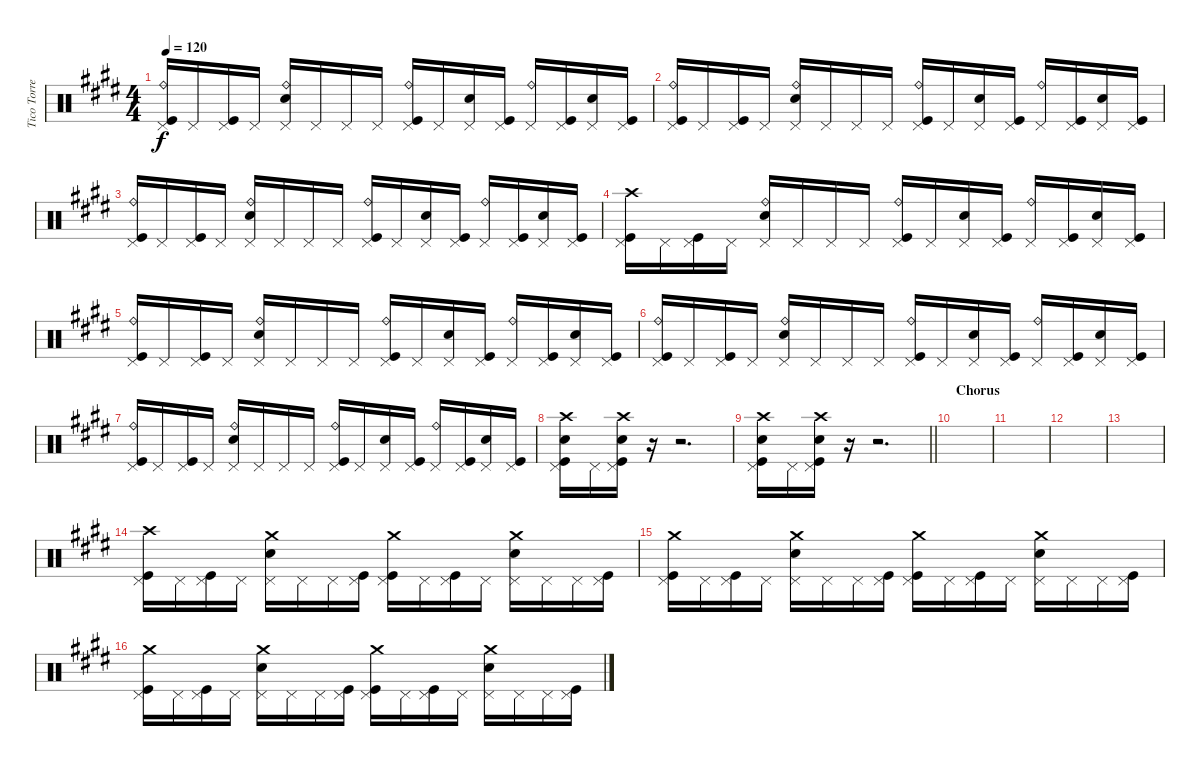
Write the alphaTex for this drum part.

\track ("Tico Torres (Drums)" "Tico Torre") {instrument percussion}
\staff {score}
\articulation defaults
\ts (4 4)
\tempo 120
\clef neutral
\ks c#minor
("Ride (bell)" "Pedal Hi-Hat (hit)" "Kick (hit)").16{dy f} "Pedal Hi-Hat (hit)".16 ("Pedal Hi-Hat (hit)" "Kick (hit)").16 "Pedal Hi-Hat (hit)".16 ("Ride (bell)" "Electric Snare (hit)" "Pedal Hi-Hat (hit)").16 "Pedal Hi-Hat (hit)".16 "Pedal Hi-Hat (hit)".16 "Pedal Hi-Hat (hit)".16 ("Ride (bell)" "Pedal Hi-Hat (hit)" "Kick (hit)").16 "Pedal Hi-Hat (hit)".16 ("Electric Snare (hit)" "Pedal Hi-Hat (hit)").16 ("Pedal Hi-Hat (hit)" "Kick (hit)").16 ("Ride (bell)" "Pedal Hi-Hat (hit)").16 ("Pedal Hi-Hat (hit)" "Kick (hit)").16 ("Electric Snare (hit)" "Pedal Hi-Hat (hit)").16 ("Pedal Hi-Hat (hit)" "Kick (hit)").16 |
("Ride (bell)" "Pedal Hi-Hat (hit)" "Kick (hit)").16 "Pedal Hi-Hat (hit)".16 ("Pedal Hi-Hat (hit)" "Kick (hit)").16 "Pedal Hi-Hat (hit)".16 ("Ride (bell)" "Electric Snare (hit)" "Pedal Hi-Hat (hit)").16 "Pedal Hi-Hat (hit)".16 "Pedal Hi-Hat (hit)".16 "Pedal Hi-Hat (hit)".16 ("Ride (bell)" "Pedal Hi-Hat (hit)" "Kick (hit)").16 "Pedal Hi-Hat (hit)".16 ("Electric Snare (hit)" "Pedal Hi-Hat (hit)").16 ("Pedal Hi-Hat (hit)" "Kick (hit)").16 ("Ride (bell)" "Pedal Hi-Hat (hit)").16 ("Pedal Hi-Hat (hit)" "Kick (hit)").16 ("Electric Snare (hit)" "Pedal Hi-Hat (hit)").16 ("Pedal Hi-Hat (hit)" "Kick (hit)").16 |
("Ride (bell)" "Pedal Hi-Hat (hit)" "Kick (hit)").16 "Pedal Hi-Hat (hit)".16 ("Pedal Hi-Hat (hit)" "Kick (hit)").16 "Pedal Hi-Hat (hit)".16 ("Ride (bell)" "Electric Snare (hit)" "Pedal Hi-Hat (hit)").16 "Pedal Hi-Hat (hit)".16 "Pedal Hi-Hat (hit)".16 "Pedal Hi-Hat (hit)".16 ("Ride (bell)" "Pedal Hi-Hat (hit)" "Kick (hit)").16 "Pedal Hi-Hat (hit)".16 ("Electric Snare (hit)" "Pedal Hi-Hat (hit)").16 ("Pedal Hi-Hat (hit)" "Kick (hit)").16 ("Ride (bell)" "Pedal Hi-Hat (hit)").16 ("Pedal Hi-Hat (hit)" "Kick (hit)").16 ("Electric Snare (hit)" "Pedal Hi-Hat (hit)").16 ("Pedal Hi-Hat (hit)" "Kick (hit)").16 |
("Crash high (hit)" "Pedal Hi-Hat (hit)" "Kick (hit)").16 "Pedal Hi-Hat (hit)".16 ("Pedal Hi-Hat (hit)" "Kick (hit)").16 "Pedal Hi-Hat (hit)".16 ("Ride (bell)" "Electric Snare (hit)" "Pedal Hi-Hat (hit)").16 "Pedal Hi-Hat (hit)".16 "Pedal Hi-Hat (hit)".16 "Pedal Hi-Hat (hit)".16 ("Ride (bell)" "Pedal Hi-Hat (hit)" "Kick (hit)").16 "Pedal Hi-Hat (hit)".16 ("Electric Snare (hit)" "Pedal Hi-Hat (hit)").16 ("Pedal Hi-Hat (hit)" "Kick (hit)").16 ("Ride (bell)" "Pedal Hi-Hat (hit)").16 ("Pedal Hi-Hat (hit)" "Kick (hit)").16 ("Electric Snare (hit)" "Pedal Hi-Hat (hit)").16 ("Pedal Hi-Hat (hit)" "Kick (hit)").16 |
("Ride (bell)" "Pedal Hi-Hat (hit)" "Kick (hit)").16 "Pedal Hi-Hat (hit)".16 ("Pedal Hi-Hat (hit)" "Kick (hit)").16 "Pedal Hi-Hat (hit)".16 ("Ride (bell)" "Electric Snare (hit)" "Pedal Hi-Hat (hit)").16 "Pedal Hi-Hat (hit)".16 "Pedal Hi-Hat (hit)".16 "Pedal Hi-Hat (hit)".16 ("Ride (bell)" "Pedal Hi-Hat (hit)" "Kick (hit)").16 "Pedal Hi-Hat (hit)".16 ("Electric Snare (hit)" "Pedal Hi-Hat (hit)").16 ("Pedal Hi-Hat (hit)" "Kick (hit)").16 ("Ride (bell)" "Pedal Hi-Hat (hit)").16 ("Pedal Hi-Hat (hit)" "Kick (hit)").16 ("Electric Snare (hit)" "Pedal Hi-Hat (hit)").16 ("Pedal Hi-Hat (hit)" "Kick (hit)").16 |
("Ride (bell)" "Pedal Hi-Hat (hit)" "Kick (hit)").16 "Pedal Hi-Hat (hit)".16 ("Pedal Hi-Hat (hit)" "Kick (hit)").16 "Pedal Hi-Hat (hit)".16 ("Ride (bell)" "Electric Snare (hit)" "Pedal Hi-Hat (hit)").16 "Pedal Hi-Hat (hit)".16 "Pedal Hi-Hat (hit)".16 "Pedal Hi-Hat (hit)".16 ("Ride (bell)" "Pedal Hi-Hat (hit)" "Kick (hit)").16 "Pedal Hi-Hat (hit)".16 ("Electric Snare (hit)" "Pedal Hi-Hat (hit)").16 ("Pedal Hi-Hat (hit)" "Kick (hit)").16 ("Ride (bell)" "Pedal Hi-Hat (hit)").16 ("Pedal Hi-Hat (hit)" "Kick (hit)").16 ("Electric Snare (hit)" "Pedal Hi-Hat (hit)").16 ("Pedal Hi-Hat (hit)" "Kick (hit)").16 |
("Ride (bell)" "Pedal Hi-Hat (hit)" "Kick (hit)").16 "Pedal Hi-Hat (hit)".16 ("Pedal Hi-Hat (hit)" "Kick (hit)").16 "Pedal Hi-Hat (hit)".16 ("Ride (bell)" "Electric Snare (hit)" "Pedal Hi-Hat (hit)").16 "Pedal Hi-Hat (hit)".16 "Pedal Hi-Hat (hit)".16 "Pedal Hi-Hat (hit)".16 ("Ride (bell)" "Pedal Hi-Hat (hit)" "Kick (hit)").16 "Pedal Hi-Hat (hit)".16 ("Electric Snare (hit)" "Pedal Hi-Hat (hit)").16 ("Pedal Hi-Hat (hit)" "Kick (hit)").16 ("Ride (bell)" "Pedal Hi-Hat (hit)").16 ("Pedal Hi-Hat (hit)" "Kick (hit)").16 ("Electric Snare (hit)" "Pedal Hi-Hat (hit)").16 ("Pedal Hi-Hat (hit)" "Kick (hit)").16 |
("Crash high (hit)" "Electric Snare (hit)" "Pedal Hi-Hat (hit)" "Kick (hit)").16 "Pedal Hi-Hat (hit)".16 ("Crash high (hit)" "Electric Snare (hit)" "Pedal Hi-Hat (hit)" "Kick (hit)").16 r.16 r.2{d} |
\barLineRight lightlight
("Crash high (hit)" "Electric Snare (hit)" "Pedal Hi-Hat (hit)" "Kick (hit)").16 "Pedal Hi-Hat (hit)".16 ("Crash high (hit)" "Electric Snare (hit)" "Pedal Hi-Hat (hit)" "Kick (hit)").16 r.16 r.2{d} |
\section ("" "Chorus")
|
|
|
|
("Crash high (hit)" "Pedal Hi-Hat (hit)" "Kick (hit)").16 "Pedal Hi-Hat (hit)".16 ("Pedal Hi-Hat (hit)" "Kick (hit)").16 "Pedal Hi-Hat (hit)".16 ("Crash medium (hit)" "Electric Snare (hit)" "Pedal Hi-Hat (hit)").16 "Pedal Hi-Hat (hit)".16 "Pedal Hi-Hat (hit)".16 ("Pedal Hi-Hat (hit)" "Kick (hit)").16 ("Crash medium (hit)" "Pedal Hi-Hat (hit)" "Kick (hit)").16 "Pedal Hi-Hat (hit)".16 ("Pedal Hi-Hat (hit)" "Kick (hit)").16 "Pedal Hi-Hat (hit)".16 ("Crash medium (hit)" "Electric Snare (hit)" "Pedal Hi-Hat (hit)").16 "Pedal Hi-Hat (hit)".16 "Pedal Hi-Hat (hit)".16 ("Pedal Hi-Hat (hit)" "Kick (hit)").16 |
("Crash medium (hit)" "Pedal Hi-Hat (hit)" "Kick (hit)").16 "Pedal Hi-Hat (hit)".16 ("Pedal Hi-Hat (hit)" "Kick (hit)").16 "Pedal Hi-Hat (hit)".16 ("Crash medium (hit)" "Electric Snare (hit)" "Pedal Hi-Hat (hit)").16 "Pedal Hi-Hat (hit)".16 "Pedal Hi-Hat (hit)".16 ("Pedal Hi-Hat (hit)" "Kick (hit)").16 ("Crash medium (hit)" "Pedal Hi-Hat (hit)" "Kick (hit)").16 "Pedal Hi-Hat (hit)".16 ("Pedal Hi-Hat (hit)" "Kick (hit)").16 "Pedal Hi-Hat (hit)".16 ("Crash medium (hit)" "Electric Snare (hit)" "Pedal Hi-Hat (hit)").16 "Pedal Hi-Hat (hit)".16 "Pedal Hi-Hat (hit)".16 ("Pedal Hi-Hat (hit)" "Kick (hit)").16 |
("Crash medium (hit)" "Pedal Hi-Hat (hit)" "Kick (hit)").16 "Pedal Hi-Hat (hit)".16 ("Pedal Hi-Hat (hit)" "Kick (hit)").16 "Pedal Hi-Hat (hit)".16 ("Crash medium (hit)" "Electric Snare (hit)" "Pedal Hi-Hat (hit)").16 "Pedal Hi-Hat (hit)".16 "Pedal Hi-Hat (hit)".16 ("Pedal Hi-Hat (hit)" "Kick (hit)").16 ("Crash medium (hit)" "Pedal Hi-Hat (hit)" "Kick (hit)").16 "Pedal Hi-Hat (hit)".16 ("Pedal Hi-Hat (hit)" "Kick (hit)").16 "Pedal Hi-Hat (hit)".16 ("Crash medium (hit)" "Electric Snare (hit)" "Pedal Hi-Hat (hit)").16 "Pedal Hi-Hat (hit)".16 "Pedal Hi-Hat (hit)".16 ("Pedal Hi-Hat (hit)" "Kick (hit)").16
